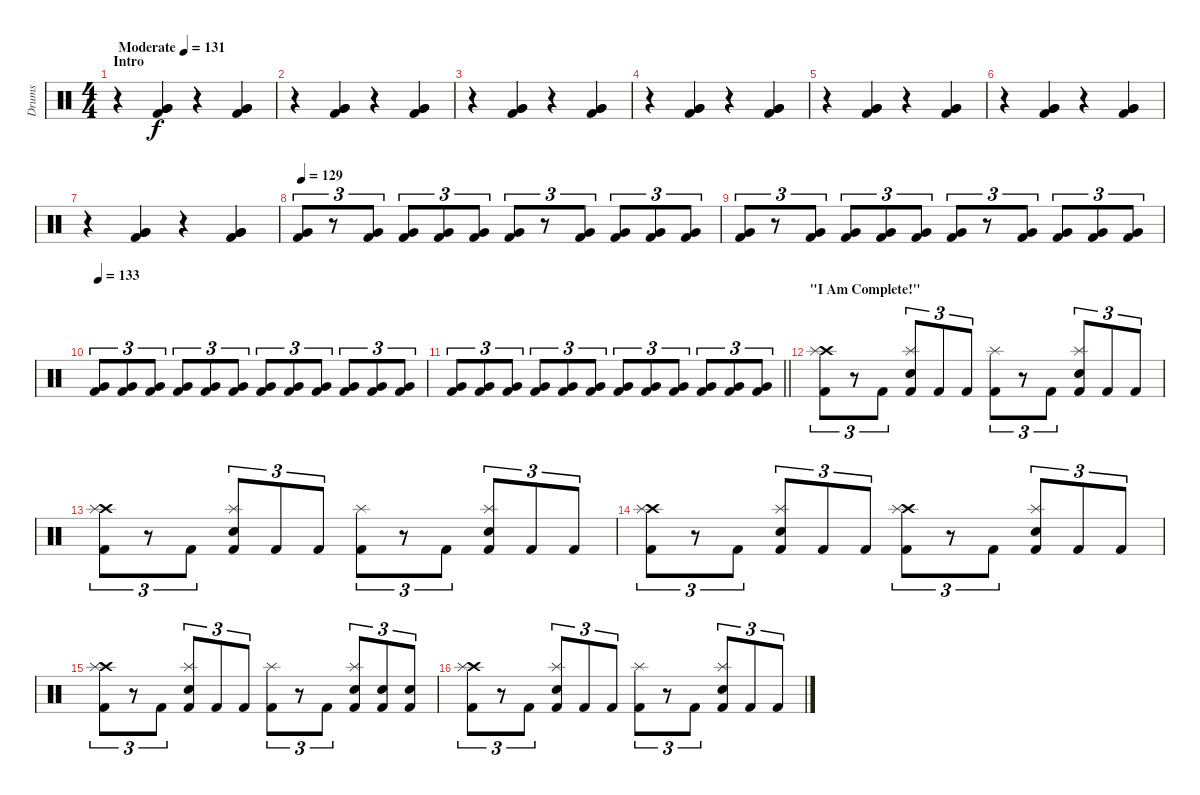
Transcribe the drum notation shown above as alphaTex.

\track ("Drums" "Drums") {instrument percussion}
\staff {score}
\articulation defaults
\ts (4 4)
\section ("" "Intro")
\tempo (131 "Moderate")
\clef neutral
\ks c
r.4{dy f} ("Kick (hit) 2" "Very Low Tom (hit)" "Very Low Tom (hit)").4 r.4 ("Kick (hit) 2" "Very Low Tom (hit)" "Very Low Tom (hit)").4 |
r.4 ("Kick (hit) 2" "Very Low Tom (hit)" "Very Low Tom (hit)").4 r.4 ("Kick (hit) 2" "Very Low Tom (hit)" "Very Low Tom (hit)").4 |
r.4 ("Kick (hit) 2" "Very Low Tom (hit)" "Very Low Tom (hit)").4 r.4 ("Kick (hit) 2" "Very Low Tom (hit)" "Very Low Tom (hit)").4 |
r.4 ("Kick (hit) 2" "Very Low Tom (hit)" "Very Low Tom (hit)").4 r.4 ("Kick (hit) 2" "Very Low Tom (hit)" "Very Low Tom (hit)").4 |
r.4 ("Kick (hit) 2" "Very Low Tom (hit)" "Very Low Tom (hit)").4 r.4 ("Kick (hit) 2" "Very Low Tom (hit)" "Very Low Tom (hit)").4 |
r.4 ("Kick (hit) 2" "Very Low Tom (hit)" "Very Low Tom (hit)").4 r.4 ("Kick (hit) 2" "Very Low Tom (hit)" "Very Low Tom (hit)").4 |
r.4 ("Kick (hit) 2" "Very Low Tom (hit)" "Very Low Tom (hit)").4 r.4 ("Kick (hit) 2" "Very Low Tom (hit)" "Very Low Tom (hit)").4 |
\tempo 129
("Kick (hit) 2" "Very Low Tom (hit)").8{tu (3 2)} r.8{tu (3 2)} ("Kick (hit) 2" "Very Low Tom (hit)").8{tu (3 2)} ("Kick (hit) 2" "Very Low Tom (hit)").8{tu (3 2)} ("Kick (hit) 2" "Very Low Tom (hit)").8{tu (3 2)} ("Kick (hit) 2" "Very Low Tom (hit)").8{tu (3 2)} ("Kick (hit) 2" "Very Low Tom (hit)").8{tu (3 2)} r.8{tu (3 2)} ("Kick (hit) 2" "Very Low Tom (hit)").8{tu (3 2)} ("Kick (hit) 2" "Very Low Tom (hit)").8{tu (3 2)} ("Kick (hit) 2" "Very Low Tom (hit)").8{tu (3 2)} ("Kick (hit) 2" "Very Low Tom (hit)").8{tu (3 2)} |
("Kick (hit) 2" "Very Low Tom (hit)").8{tu (3 2)} r.8{tu (3 2)} ("Kick (hit) 2" "Very Low Tom (hit)").8{tu (3 2)} ("Kick (hit) 2" "Very Low Tom (hit)").8{tu (3 2)} ("Kick (hit) 2" "Very Low Tom (hit)").8{tu (3 2)} ("Kick (hit) 2" "Very Low Tom (hit)").8{tu (3 2)} ("Kick (hit) 2" "Very Low Tom (hit)").8{tu (3 2)} r.8{tu (3 2)} ("Kick (hit) 2" "Very Low Tom (hit)").8{tu (3 2)} ("Kick (hit) 2" "Very Low Tom (hit)").8{tu (3 2)} ("Kick (hit) 2" "Very Low Tom (hit)").8{tu (3 2)} ("Kick (hit) 2" "Very Low Tom (hit)").8{tu (3 2)} |
\tempo 133
("Kick (hit) 2" "Very Low Tom (hit)").8{tu (3 2)} ("Kick (hit) 2" "Very Low Tom (hit)").8{tu (3 2)} ("Kick (hit) 2" "Very Low Tom (hit)").8{tu (3 2)} ("Kick (hit) 2" "Very Low Tom (hit)").8{tu (3 2)} ("Kick (hit) 2" "Very Low Tom (hit)").8{tu (3 2)} ("Kick (hit) 2" "Very Low Tom (hit)").8{tu (3 2)} ("Kick (hit) 2" "Very Low Tom (hit)").8{tu (3 2)} ("Kick (hit) 2" "Very Low Tom (hit)").8{tu (3 2)} ("Kick (hit) 2" "Very Low Tom (hit)").8{tu (3 2)} ("Kick (hit) 2" "Very Low Tom (hit)").8{tu (3 2)} ("Kick (hit) 2" "Very Low Tom (hit)").8{tu (3 2)} ("Kick (hit) 2" "Very Low Tom (hit)").8{tu (3 2)} |
\barLineRight lightlight
("Kick (hit) 2" "Very Low Tom (hit)").8{tu (3 2)} ("Kick (hit) 2" "Very Low Tom (hit)").8{tu (3 2)} ("Kick (hit) 2" "Very Low Tom (hit)").8{tu (3 2)} ("Kick (hit) 2" "Very Low Tom (hit)").8{tu (3 2)} ("Kick (hit) 2" "Very Low Tom (hit)").8{tu (3 2)} ("Kick (hit) 2" "Very Low Tom (hit)").8{tu (3 2)} ("Kick (hit) 2" "Very Low Tom (hit)").8{tu (3 2)} ("Kick (hit) 2" "Very Low Tom (hit)").8{tu (3 2)} ("Kick (hit) 2" "Very Low Tom (hit)").8{tu (3 2)} ("Kick (hit) 2" "Very Low Tom (hit)").8{tu (3 2)} ("Kick (hit) 2" "Very Low Tom (hit)").8{tu (3 2)} ("Kick (hit) 2" "Very Low Tom (hit)").8{tu (3 2)} |
\section ("" "\"I Am Complete!\"")
("Kick (hit) 2" "Crash high (hit)" "Splash (hit)").8{tu (3 2)} r.8{tu (3 2)} "Kick (hit) 2".8{tu (3 2)} ("Kick (hit) 2" "Electric Snare (hit)" "Splash (hit)").8{tu (3 2)} "Kick (hit) 2".8{tu (3 2)} "Kick (hit) 2".8{tu (3 2)} ("Kick (hit) 2" "Splash (hit)").8{tu (3 2)} r.8{tu (3 2)} "Kick (hit) 2".8{tu (3 2)} ("Kick (hit) 2" "Electric Snare (hit)" "Splash (hit)").8{tu (3 2)} "Kick (hit) 2".8{tu (3 2)} "Kick (hit) 2".8{tu (3 2)} |
("Kick (hit) 2" "Crash high (hit)" "Splash (hit)").8{tu (3 2)} r.8{tu (3 2)} "Kick (hit) 2".8{tu (3 2)} ("Kick (hit) 2" "Electric Snare (hit)" "Splash (hit)").8{tu (3 2)} "Kick (hit) 2".8{tu (3 2)} "Kick (hit) 2".8{tu (3 2)} ("Kick (hit) 2" "Splash (hit)").8{tu (3 2)} r.8{tu (3 2)} "Kick (hit) 2".8{tu (3 2)} ("Kick (hit) 2" "Electric Snare (hit)" "Splash (hit)").8{tu (3 2)} "Kick (hit) 2".8{tu (3 2)} "Kick (hit) 2".8{tu (3 2)} |
("Kick (hit) 2" "Crash high (hit)" "Splash (hit)").8{tu (3 2)} r.8{tu (3 2)} "Kick (hit) 2".8{tu (3 2)} ("Kick (hit) 2" "Electric Snare (hit)" "Splash (hit)").8{tu (3 2)} "Kick (hit) 2".8{tu (3 2)} "Kick (hit) 2".8{tu (3 2)} ("Kick (hit) 2" "Crash high (hit)" "Splash (hit)").8{tu (3 2)} r.8{tu (3 2)} "Kick (hit) 2".8{tu (3 2)} ("Kick (hit) 2" "Electric Snare (hit)" "Splash (hit)").8{tu (3 2)} "Kick (hit) 2".8{tu (3 2)} "Kick (hit) 2".8{tu (3 2)} |
("Kick (hit) 2" "Crash high (hit)" "Splash (hit)").8{tu (3 2)} r.8{tu (3 2)} "Kick (hit) 2".8{tu (3 2)} ("Kick (hit) 2" "Electric Snare (hit)" "Splash (hit)").8{tu (3 2)} "Kick (hit) 2".8{tu (3 2)} "Kick (hit) 2".8{tu (3 2)} ("Kick (hit) 2" "Splash (hit)").8{tu (3 2)} r.8{tu (3 2)} "Kick (hit) 2".8{tu (3 2)} ("Kick (hit) 2" "Electric Snare (hit)" "Splash (hit)").8{tu (3 2)} ("Kick (hit) 2" "Electric Snare (hit)").8{tu (3 2)} ("Kick (hit) 2" "Electric Snare (hit)").8{tu (3 2)} |
("Kick (hit) 2" "Crash high (hit)" "Splash (hit)").8{tu (3 2)} r.8{tu (3 2)} "Kick (hit) 2".8{tu (3 2)} ("Kick (hit) 2" "Electric Snare (hit)" "Splash (hit)").8{tu (3 2)} "Kick (hit) 2".8{tu (3 2)} "Kick (hit) 2".8{tu (3 2)} ("Kick (hit) 2" "Splash (hit)").8{tu (3 2)} r.8{tu (3 2)} "Kick (hit) 2".8{tu (3 2)} ("Kick (hit) 2" "Electric Snare (hit)" "Splash (hit)").8{tu (3 2)} "Kick (hit) 2".8{tu (3 2)} "Kick (hit) 2".8{tu (3 2)}
